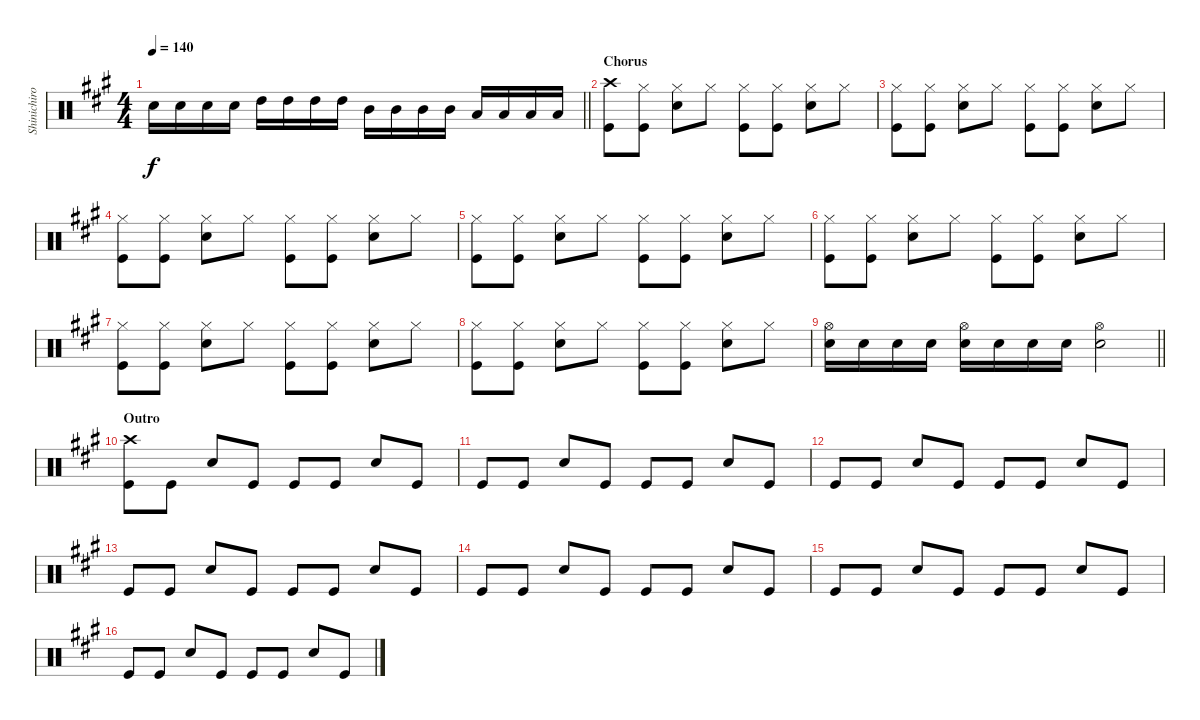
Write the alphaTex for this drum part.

\track ("Shinichiro Drums" "Shinichiro") {instrument percussion}
\staff {score}
\articulation defaults
\ts (4 4)
\tempo 140
\clef neutral
\barLineRight lightlight
\ks a "Snare (hit) 2".16{dy f} "Snare (hit) 2".16 "Snare (hit) 2".16 "Snare (hit) 2".16 "High Tom (hit)".16 "High Tom (hit)".16 "High Tom (hit)".16 "High Tom (hit)".16 "Mid Tom (hit)".16 "Mid Tom (hit)".16 "Mid Tom (hit)".16 "Mid Tom (hit)".16 "Low Tom (hit)".16 "Low Tom (hit)".16 "Low Tom (hit)".16 "Low Tom (hit)".16
|
\section ("" "Chorus")
("Crash high (hit)" "Kick (hit)").8 ("Hi-Hat (closed)" "Kick (hit)").8 ("Hi-Hat (closed)" "Snare (hit) 2").8 "Hi-Hat (closed)".8 ("Hi-Hat (closed)" "Kick (hit)").8 ("Hi-Hat (closed)" "Kick (hit)").8 ("Hi-Hat (closed)" "Snare (hit) 2").8 "Hi-Hat (closed)".8 |
("Hi-Hat (closed)" "Kick (hit)").8 ("Hi-Hat (closed)" "Kick (hit)").8 ("Hi-Hat (closed)" "Snare (hit) 2").8 "Hi-Hat (closed)".8 ("Hi-Hat (closed)" "Kick (hit)").8 ("Hi-Hat (closed)" "Kick (hit)").8 ("Hi-Hat (closed)" "Snare (hit) 2").8 "Hi-Hat (closed)".8 |
("Hi-Hat (closed)" "Kick (hit)").8 ("Hi-Hat (closed)" "Kick (hit)").8 ("Hi-Hat (closed)" "Snare (hit) 2").8 "Hi-Hat (closed)".8 ("Hi-Hat (closed)" "Kick (hit)").8 ("Hi-Hat (closed)" "Kick (hit)").8 ("Hi-Hat (closed)" "Snare (hit) 2").8 "Hi-Hat (closed)".8 |
("Hi-Hat (closed)" "Kick (hit)").8 ("Hi-Hat (closed)" "Kick (hit)").8 ("Hi-Hat (closed)" "Snare (hit) 2").8 "Hi-Hat (closed)".8 ("Hi-Hat (closed)" "Kick (hit)").8 ("Hi-Hat (closed)" "Kick (hit)").8 ("Hi-Hat (closed)" "Snare (hit) 2").8 "Hi-Hat (closed)".8 |
("Hi-Hat (closed)" "Kick (hit)").8 ("Hi-Hat (closed)" "Kick (hit)").8 ("Hi-Hat (closed)" "Snare (hit) 2").8 "Hi-Hat (closed)".8 ("Hi-Hat (closed)" "Kick (hit)").8 ("Hi-Hat (closed)" "Kick (hit)").8 ("Hi-Hat (closed)" "Snare (hit) 2").8 "Hi-Hat (closed)".8 |
("Hi-Hat (closed)" "Kick (hit)").8 ("Hi-Hat (closed)" "Kick (hit)").8 ("Hi-Hat (closed)" "Snare (hit) 2").8 "Hi-Hat (closed)".8 ("Hi-Hat (closed)" "Kick (hit)").8 ("Hi-Hat (closed)" "Kick (hit)").8 ("Hi-Hat (closed)" "Snare (hit) 2").8 "Hi-Hat (closed)".8 |
("Hi-Hat (closed)" "Kick (hit)").8 ("Hi-Hat (closed)" "Kick (hit)").8 ("Hi-Hat (closed)" "Snare (hit) 2").8 "Hi-Hat (closed)".8 ("Hi-Hat (closed)" "Kick (hit)").8 ("Hi-Hat (closed)" "Kick (hit)").8 ("Hi-Hat (closed)" "Snare (hit) 2").8 "Hi-Hat (closed)".8 |
\barLineRight lightlight
("Hi-Hat (open)" "Snare (hit) 2").16 "Snare (hit) 2".16 "Snare (hit) 2".16 "Snare (hit) 2".16 ("Hi-Hat (open)" "Snare (hit) 2").16 "Snare (hit) 2".16 "Snare (hit) 2".16 "Snare (hit) 2".16 ("Hi-Hat (open)" "Snare (hit) 2").2 |
\section ("" "Outro")
("Crash high (hit)" "Kick (hit)").8 "Kick (hit)".8 "Snare (hit) 2".8 "Kick (hit)".8 "Kick (hit)".8 "Kick (hit)".8 "Snare (hit) 2".8 "Kick (hit)".8 |
"Kick (hit)".8 "Kick (hit)".8 "Snare (hit) 2".8 "Kick (hit)".8 "Kick (hit)".8 "Kick (hit)".8 "Snare (hit) 2".8 "Kick (hit)".8 |
"Kick (hit)".8 "Kick (hit)".8 "Snare (hit) 2".8 "Kick (hit)".8 "Kick (hit)".8 "Kick (hit)".8 "Snare (hit) 2".8 "Kick (hit)".8 |
"Kick (hit)".8 "Kick (hit)".8 "Snare (hit) 2".8 "Kick (hit)".8 "Kick (hit)".8 "Kick (hit)".8 "Snare (hit) 2".8 "Kick (hit)".8 |
"Kick (hit)".8 "Kick (hit)".8 "Snare (hit) 2".8 "Kick (hit)".8 "Kick (hit)".8 "Kick (hit)".8 "Snare (hit) 2".8 "Kick (hit)".8 |
"Kick (hit)".8 "Kick (hit)".8 "Snare (hit) 2".8 "Kick (hit)".8 "Kick (hit)".8 "Kick (hit)".8 "Snare (hit) 2".8 "Kick (hit)".8 |
"Kick (hit)".8 "Kick (hit)".8 "Snare (hit) 2".8 "Kick (hit)".8 "Kick (hit)".8 "Kick (hit)".8 "Snare (hit) 2".8 "Kick (hit)".8
